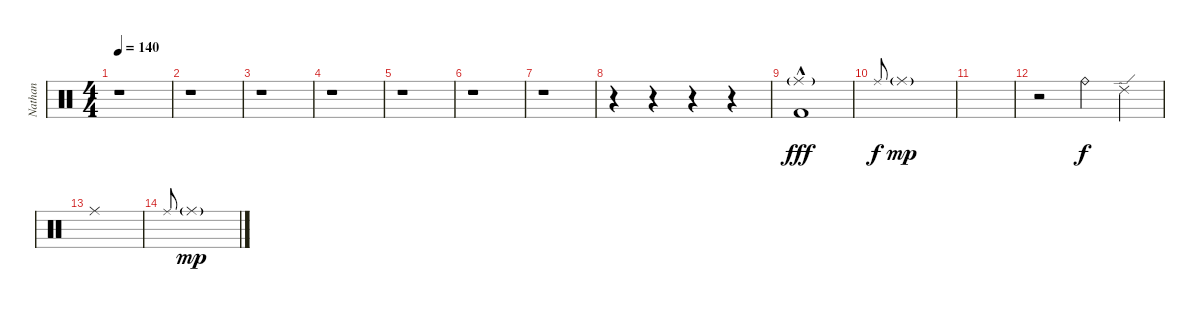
\track ("Nathan" "Nathan") {instrument percussion}
\staff {score}
\articulation defaults
\ts (4 4)
\tempo 140
\clef neutral
\ks c
r.1{dy fff} |
r.1 |
r.1 |
r.1 |
r.1 |
r.1 |
r.1 |
r.4 r.4 r.4 r.4 |
("Ride (middle)"{g} "Kick (hit) 2"{hac}).1 |
"Ride (middle)".8{gr onbeat dy f} "Ride (middle)"{g}.1{dy mp} |
|
r.2 "Ride (bell)".4{dy f} "Ride (edge) 2".4 |
"Ride (middle)".1 |
"Ride (middle)".8{gr onbeat} "Ride (middle)"{g}.1{dy mp}
